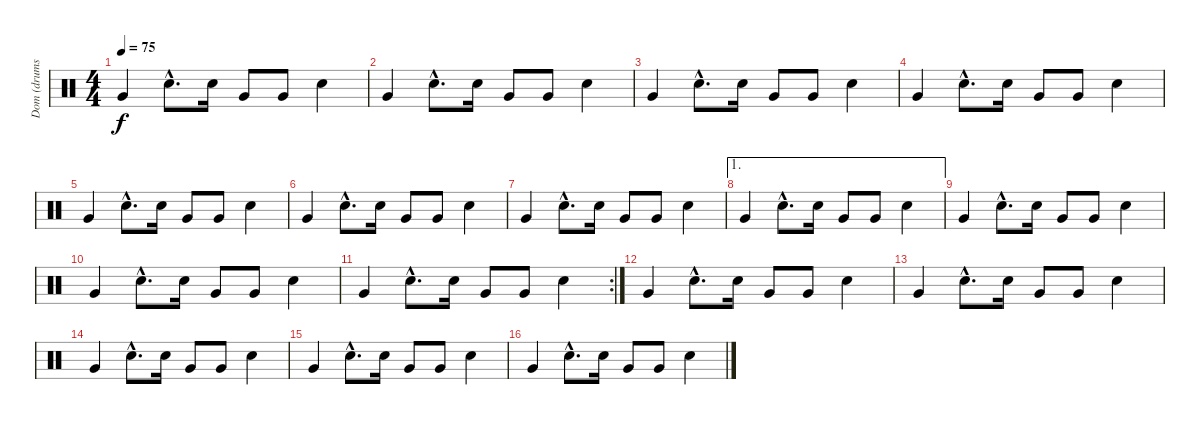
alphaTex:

\track ("Dom (drums)" "Dom (drums") {instrument percussion}
\staff {score}
\articulation defaults
\ts (4 4)
\tempo 75
\clef neutral
\ks c "Very Low Tom (hit)".4{dy f} "Snare (hit) 2"{hac}.8{d} "Snare (hit) 2".16 "Very Low Tom (hit)".8 "Very Low Tom (hit)".8 "Snare (hit) 2".4
|
"Very Low Tom (hit)".4 "Snare (hit) 2"{hac}.8{d} "Snare (hit) 2".16 "Very Low Tom (hit)".8 "Very Low Tom (hit)".8 "Snare (hit) 2".4 |
"Very Low Tom (hit)".4 "Snare (hit) 2"{hac}.8{d} "Snare (hit) 2".16 "Very Low Tom (hit)".8 "Very Low Tom (hit)".8 "Snare (hit) 2".4 |
"Very Low Tom (hit)".4 "Snare (hit) 2"{hac}.8{d} "Snare (hit) 2".16 "Very Low Tom (hit)".8 "Very Low Tom (hit)".8 "Snare (hit) 2".4 |
"Very Low Tom (hit)".4 "Snare (hit) 2"{hac}.8{d} "Snare (hit) 2".16 "Very Low Tom (hit)".8 "Very Low Tom (hit)".8 "Snare (hit) 2".4 |
"Very Low Tom (hit)".4 "Snare (hit) 2"{hac}.8{d} "Snare (hit) 2".16 "Very Low Tom (hit)".8 "Very Low Tom (hit)".8 "Snare (hit) 2".4 |
"Very Low Tom (hit)".4 "Snare (hit) 2"{hac}.8{d} "Snare (hit) 2".16 "Very Low Tom (hit)".8 "Very Low Tom (hit)".8 "Snare (hit) 2".4 |
\ae 1 "Very Low Tom (hit)".4 "Snare (hit) 2"{hac}.8{d} "Snare (hit) 2".16 "Very Low Tom (hit)".8 "Very Low Tom (hit)".8 "Snare (hit) 2".4
|
"Very Low Tom (hit)".4 "Snare (hit) 2"{hac}.8{d} "Snare (hit) 2".16 "Very Low Tom (hit)".8 "Very Low Tom (hit)".8 "Snare (hit) 2".4 |
"Very Low Tom (hit)".4 "Snare (hit) 2"{hac}.8{d} "Snare (hit) 2".16 "Very Low Tom (hit)".8 "Very Low Tom (hit)".8 "Snare (hit) 2".4 |
\rc 2 "Very Low Tom (hit)".4 "Snare (hit) 2"{hac}.8{d} "Snare (hit) 2".16 "Very Low Tom (hit)".8 "Very Low Tom (hit)".8 "Snare (hit) 2".4
|
"Very Low Tom (hit)".4 "Snare (hit) 2"{hac}.8{d} "Snare (hit) 2".16 "Very Low Tom (hit)".8 "Very Low Tom (hit)".8 "Snare (hit) 2".4 |
"Very Low Tom (hit)".4 "Snare (hit) 2"{hac}.8{d} "Snare (hit) 2".16 "Very Low Tom (hit)".8 "Very Low Tom (hit)".8 "Snare (hit) 2".4 |
"Very Low Tom (hit)".4 "Snare (hit) 2"{hac}.8{d} "Snare (hit) 2".16 "Very Low Tom (hit)".8 "Very Low Tom (hit)".8 "Snare (hit) 2".4 |
"Very Low Tom (hit)".4 "Snare (hit) 2"{hac}.8{d} "Snare (hit) 2".16 "Very Low Tom (hit)".8 "Very Low Tom (hit)".8 "Snare (hit) 2".4 |
"Very Low Tom (hit)".4 "Snare (hit) 2"{hac}.8{d} "Snare (hit) 2".16 "Very Low Tom (hit)".8 "Very Low Tom (hit)".8 "Snare (hit) 2".4
